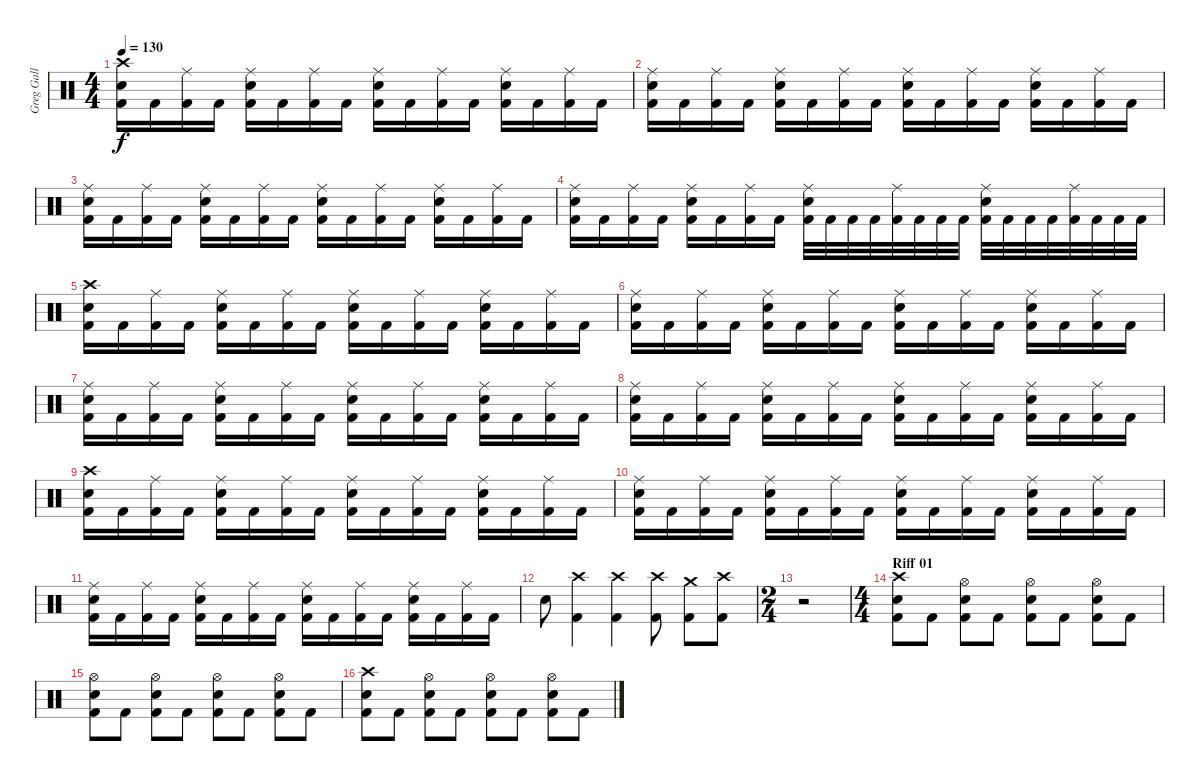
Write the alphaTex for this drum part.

\track ("Greg Gall" "Greg Gall") {instrument percussion}
\staff {score}
\articulation defaults
\ts (4 4)
\tempo 130
\clef neutral
\ks c
("Crash high (hit)" "Electric Snare (hit)" "Kick (hit) 2").16{dy f} "Kick (hit) 2".16 ("Ride (middle)" "Kick (hit) 2").16 "Kick (hit) 2".16 ("Ride (middle)" "Electric Snare (hit)" "Kick (hit) 2").16 "Kick (hit) 2".16 ("Ride (middle)" "Kick (hit) 2").16 "Kick (hit) 2".16 ("Ride (middle)" "Electric Snare (hit)" "Kick (hit) 2").16 "Kick (hit) 2".16 ("Ride (middle)" "Kick (hit) 2").16 "Kick (hit) 2".16 ("Ride (middle)" "Electric Snare (hit)" "Kick (hit) 2").16 "Kick (hit) 2".16 ("Ride (middle)" "Kick (hit) 2").16 "Kick (hit) 2".16 |
("Ride (middle)" "Electric Snare (hit)" "Kick (hit) 2").16 "Kick (hit) 2".16 ("Ride (middle)" "Kick (hit) 2").16 "Kick (hit) 2".16 ("Ride (middle)" "Electric Snare (hit)" "Kick (hit) 2").16 "Kick (hit) 2".16 ("Ride (middle)" "Kick (hit) 2").16 "Kick (hit) 2".16 ("Ride (middle)" "Electric Snare (hit)" "Kick (hit) 2").16 "Kick (hit) 2".16 ("Ride (middle)" "Kick (hit) 2").16 "Kick (hit) 2".16 ("Ride (middle)" "Electric Snare (hit)" "Kick (hit) 2").16 "Kick (hit) 2".16 ("Ride (middle)" "Kick (hit) 2").16 "Kick (hit) 2".16 |
("Ride (middle)" "Electric Snare (hit)" "Kick (hit) 2").16 "Kick (hit) 2".16 ("Ride (middle)" "Kick (hit) 2").16 "Kick (hit) 2".16 ("Ride (middle)" "Electric Snare (hit)" "Kick (hit) 2").16 "Kick (hit) 2".16 ("Ride (middle)" "Kick (hit) 2").16 "Kick (hit) 2".16 ("Ride (middle)" "Electric Snare (hit)" "Kick (hit) 2").16 "Kick (hit) 2".16 ("Ride (middle)" "Kick (hit) 2").16 "Kick (hit) 2".16 ("Ride (middle)" "Electric Snare (hit)" "Kick (hit) 2").16 "Kick (hit) 2".16 ("Ride (middle)" "Kick (hit) 2").16 "Kick (hit) 2".16 |
("Ride (middle)" "Electric Snare (hit)" "Kick (hit) 2").16 "Kick (hit) 2".16 ("Ride (middle)" "Kick (hit) 2").16 "Kick (hit) 2".16 ("Ride (middle)" "Electric Snare (hit)" "Kick (hit) 2").16 "Kick (hit) 2".16 ("Ride (middle)" "Kick (hit) 2").16 "Kick (hit) 2".16 ("Ride (middle)" "Electric Snare (hit)" "Kick (hit) 2").32 "Kick (hit) 2".32 "Kick (hit) 2".32 "Kick (hit) 2".32 ("Ride (middle)" "Kick (hit) 2").32 "Kick (hit) 2".32 "Kick (hit) 2".32 "Kick (hit) 2".32 ("Ride (middle)" "Electric Snare (hit)" "Kick (hit) 2").32 "Kick (hit) 2".32 "Kick (hit) 2".32 "Kick (hit) 2".32 ("Ride (middle)" "Kick (hit) 2").32 "Kick (hit) 2".32 "Kick (hit) 2".32 "Kick (hit) 2".32 |
("Crash high (hit)" "Electric Snare (hit)" "Kick (hit) 2").16 "Kick (hit) 2".16 ("Ride (middle)" "Kick (hit) 2").16 "Kick (hit) 2".16 ("Ride (middle)" "Electric Snare (hit)" "Kick (hit) 2").16 "Kick (hit) 2".16 ("Ride (middle)" "Kick (hit) 2").16 "Kick (hit) 2".16 ("Ride (middle)" "Electric Snare (hit)" "Kick (hit) 2").16 "Kick (hit) 2".16 ("Ride (middle)" "Kick (hit) 2").16 "Kick (hit) 2".16 ("Ride (middle)" "Electric Snare (hit)" "Kick (hit) 2").16 "Kick (hit) 2".16 ("Ride (middle)" "Kick (hit) 2").16 "Kick (hit) 2".16 |
("Ride (middle)" "Electric Snare (hit)" "Kick (hit) 2").16 "Kick (hit) 2".16 ("Ride (middle)" "Kick (hit) 2").16 "Kick (hit) 2".16 ("Ride (middle)" "Electric Snare (hit)" "Kick (hit) 2").16 "Kick (hit) 2".16 ("Ride (middle)" "Kick (hit) 2").16 "Kick (hit) 2".16 ("Ride (middle)" "Electric Snare (hit)" "Kick (hit) 2").16 "Kick (hit) 2".16 ("Ride (middle)" "Kick (hit) 2").16 "Kick (hit) 2".16 ("Ride (middle)" "Electric Snare (hit)" "Kick (hit) 2").16 "Kick (hit) 2".16 ("Ride (middle)" "Kick (hit) 2").16 "Kick (hit) 2".16 |
("Ride (middle)" "Electric Snare (hit)" "Kick (hit) 2").16 "Kick (hit) 2".16 ("Ride (middle)" "Kick (hit) 2").16 "Kick (hit) 2".16 ("Ride (middle)" "Electric Snare (hit)" "Kick (hit) 2").16 "Kick (hit) 2".16 ("Ride (middle)" "Kick (hit) 2").16 "Kick (hit) 2".16 ("Ride (middle)" "Electric Snare (hit)" "Kick (hit) 2").16 "Kick (hit) 2".16 ("Ride (middle)" "Kick (hit) 2").16 "Kick (hit) 2".16 ("Ride (middle)" "Electric Snare (hit)" "Kick (hit) 2").16 "Kick (hit) 2".16 ("Ride (middle)" "Kick (hit) 2").16 "Kick (hit) 2".16 |
("Ride (middle)" "Electric Snare (hit)" "Kick (hit) 2").16 "Kick (hit) 2".16 ("Ride (middle)" "Kick (hit) 2").16 "Kick (hit) 2".16 ("Ride (middle)" "Electric Snare (hit)" "Kick (hit) 2").16 "Kick (hit) 2".16 ("Ride (middle)" "Kick (hit) 2").16 "Kick (hit) 2".16 ("Ride (middle)" "Electric Snare (hit)" "Kick (hit) 2").16 "Kick (hit) 2".16 ("Ride (middle)" "Kick (hit) 2").16 "Kick (hit) 2".16 ("Ride (middle)" "Electric Snare (hit)" "Kick (hit) 2").16 "Kick (hit) 2".16 ("Ride (middle)" "Kick (hit) 2").16 "Kick (hit) 2".16 |
("Crash high (hit)" "Electric Snare (hit)" "Kick (hit) 2").16 "Kick (hit) 2".16 ("Ride (middle)" "Kick (hit) 2").16 "Kick (hit) 2".16 ("Ride (middle)" "Electric Snare (hit)" "Kick (hit) 2").16 "Kick (hit) 2".16 ("Ride (middle)" "Kick (hit) 2").16 "Kick (hit) 2".16 ("Ride (middle)" "Electric Snare (hit)" "Kick (hit) 2").16 "Kick (hit) 2".16 ("Ride (middle)" "Kick (hit) 2").16 "Kick (hit) 2".16 ("Ride (middle)" "Electric Snare (hit)" "Kick (hit) 2").16 "Kick (hit) 2".16 ("Ride (middle)" "Kick (hit) 2").16 "Kick (hit) 2".16 |
("Ride (middle)" "Electric Snare (hit)" "Kick (hit) 2").16 "Kick (hit) 2".16 ("Ride (middle)" "Kick (hit) 2").16 "Kick (hit) 2".16 ("Ride (middle)" "Electric Snare (hit)" "Kick (hit) 2").16 "Kick (hit) 2".16 ("Ride (middle)" "Kick (hit) 2").16 "Kick (hit) 2".16 ("Ride (middle)" "Electric Snare (hit)" "Kick (hit) 2").16 "Kick (hit) 2".16 ("Ride (middle)" "Kick (hit) 2").16 "Kick (hit) 2".16 ("Ride (middle)" "Electric Snare (hit)" "Kick (hit) 2").16 "Kick (hit) 2".16 ("Ride (middle)" "Kick (hit) 2").16 "Kick (hit) 2".16 |
("Ride (middle)" "Electric Snare (hit)" "Kick (hit) 2").16 "Kick (hit) 2".16 ("Ride (middle)" "Kick (hit) 2").16 "Kick (hit) 2".16 ("Ride (middle)" "Electric Snare (hit)" "Kick (hit) 2").16 "Kick (hit) 2".16 ("Ride (middle)" "Kick (hit) 2").16 "Kick (hit) 2".16 ("Ride (middle)" "Electric Snare (hit)" "Kick (hit) 2").16 "Kick (hit) 2".16 ("Ride (middle)" "Kick (hit) 2").16 "Kick (hit) 2".16 ("Ride (middle)" "Electric Snare (hit)" "Kick (hit) 2").16 "Kick (hit) 2".16 ("Ride (middle)" "Kick (hit) 2").16 "Kick (hit) 2".16 |
"Electric Snare (hit)".8 ("Crash high (hit)" "Kick (hit) 2").4 ("Crash high (hit)" "Kick (hit) 2").4 ("Crash high (hit)" "Kick (hit) 2").8 ("Crash medium (hit)" "Kick (hit) 2").8 ("Crash high (hit)" "Kick (hit) 2").8 |
\ts (2 4)
r.2 |
\ts (4 4)
\section ("" "Riff 01")
("Crash high (hit)" "Electric Snare (hit)" "Kick (hit) 2").8 "Kick (hit) 2".8 ("Hi-Hat (open)" "Electric Snare (hit)" "Kick (hit) 2").8 "Kick (hit) 2".8 ("Hi-Hat (open)" "Electric Snare (hit)" "Kick (hit) 2").8 "Kick (hit) 2".8 ("Hi-Hat (open)" "Electric Snare (hit)" "Kick (hit) 2").8 "Kick (hit) 2".8 |
("Hi-Hat (open)" "Electric Snare (hit)" "Kick (hit) 2").8 "Kick (hit) 2".8 ("Hi-Hat (open)" "Electric Snare (hit)" "Kick (hit) 2").8 "Kick (hit) 2".8 ("Hi-Hat (open)" "Electric Snare (hit)" "Kick (hit) 2").8 "Kick (hit) 2".8 ("Hi-Hat (open)" "Electric Snare (hit)" "Kick (hit) 2").8 "Kick (hit) 2".8 |
("Crash high (hit)" "Electric Snare (hit)" "Kick (hit) 2").8 "Kick (hit) 2".8 ("Hi-Hat (open)" "Electric Snare (hit)" "Kick (hit) 2").8 "Kick (hit) 2".8 ("Hi-Hat (open)" "Electric Snare (hit)" "Kick (hit) 2").8 "Kick (hit) 2".8 ("Hi-Hat (open)" "Electric Snare (hit)" "Kick (hit) 2").8 "Kick (hit) 2".8
